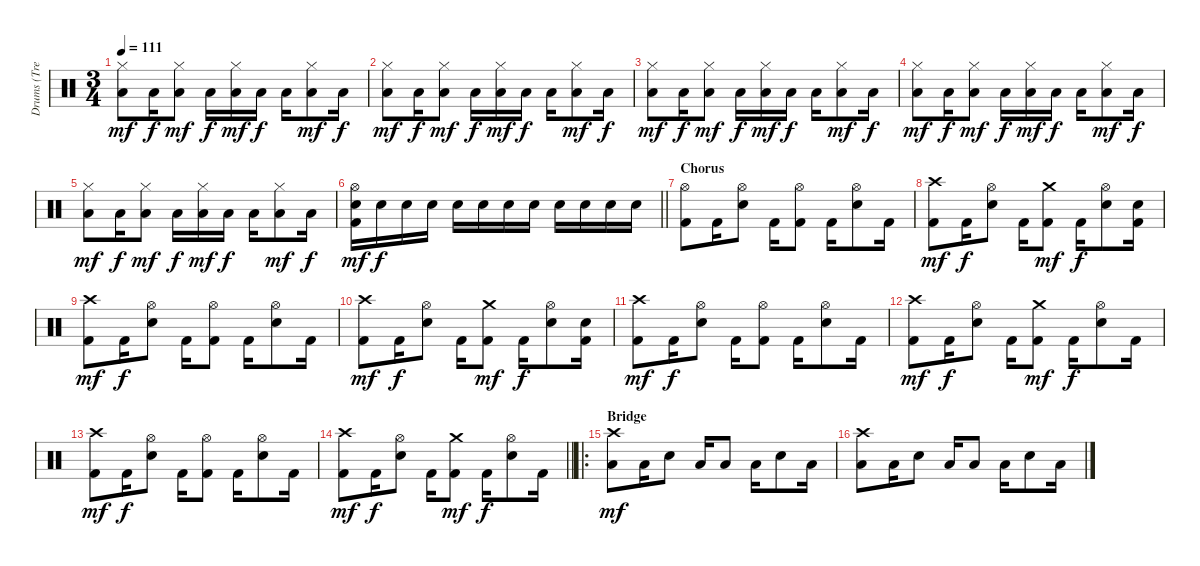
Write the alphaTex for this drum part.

\track ("Drums (Tre Cool)" "Drums (Tre") {instrument percussion}
\staff {score}
\articulation defaults
\ts (3 4)
\tempo 111
\clef neutral
\ks c
("Hi-Hat (closed)" "Low Floor Tom (hit)").8{dy mf} "Low Floor Tom (hit)".16{dy f} ("Hi-Hat (closed)" "Low Tom (hit)").8{dy mf} "Low Tom (hit)".16{dy f} ("Hi-Hat (closed)" "Low Floor Tom (hit)").16{dy mf} "Low Floor Tom (hit)".16{dy f} "Low Floor Tom (hit)".16 ("Hi-Hat (closed)" "Low Tom (hit)").8{dy mf} "Low Tom (hit)".16{dy f} |
("Hi-Hat (closed)" "Low Floor Tom (hit)").8{dy mf} "Low Floor Tom (hit)".16{dy f} ("Hi-Hat (closed)" "Low Tom (hit)").8{dy mf} "Low Tom (hit)".16{dy f} ("Hi-Hat (closed)" "Low Floor Tom (hit)").16{dy mf} "Low Floor Tom (hit)".16{dy f} "Low Floor Tom (hit)".16 ("Hi-Hat (closed)" "Low Tom (hit)").8{dy mf} "Low Tom (hit)".16{dy f} |
("Hi-Hat (closed)" "Low Floor Tom (hit)").8{dy mf} "Low Floor Tom (hit)".16{dy f} ("Hi-Hat (closed)" "Low Tom (hit)").8{dy mf} "Low Tom (hit)".16{dy f} ("Hi-Hat (closed)" "Low Floor Tom (hit)").16{dy mf} "Low Floor Tom (hit)".16{dy f} "Low Floor Tom (hit)".16 ("Hi-Hat (closed)" "Low Tom (hit)").8{dy mf} "Low Tom (hit)".16{dy f} |
("Hi-Hat (closed)" "Low Floor Tom (hit)").8{dy mf} "Low Floor Tom (hit)".16{dy f} ("Hi-Hat (closed)" "Low Tom (hit)").8{dy mf} "Low Tom (hit)".16{dy f} ("Hi-Hat (closed)" "Low Floor Tom (hit)").16{dy mf} "Low Floor Tom (hit)".16{dy f} "Low Floor Tom (hit)".16 ("Hi-Hat (closed)" "Low Tom (hit)").8{dy mf} "Low Tom (hit)".16{dy f} |
("Hi-Hat (closed)" "Low Floor Tom (hit)").8{dy mf} "Low Floor Tom (hit)".16{dy f} ("Hi-Hat (closed)" "Low Tom (hit)").8{dy mf} "Low Tom (hit)".16{dy f} ("Hi-Hat (closed)" "Low Floor Tom (hit)").16{dy mf} "Low Floor Tom (hit)".16{dy f} "Low Floor Tom (hit)".16 ("Hi-Hat (closed)" "Low Tom (hit)").8{dy mf} "Low Tom (hit)".16{dy f} |
\barLineRight lightlight
("Hi-Hat (open)" "Electric Snare (hit)" "Kick (hit) 2").16{dy mf} "Electric Snare (hit)".16{dy f} "Electric Snare (hit)".16 "Electric Snare (hit)".16 "Electric Snare (hit)".16 "Electric Snare (hit)".16 "Electric Snare (hit)".16 "Electric Snare (hit)".16 "Electric Snare (hit)".16 "Electric Snare (hit)".16 "Electric Snare (hit)".16 "Electric Snare (hit)".16 |
\section ("" "Chorus")
("Hi-Hat (open)" "Kick (hit) 2").8 "Kick (hit) 2".16 ("Hi-Hat (open)" "Electric Snare (hit)").8 "Kick (hit) 2".16 ("Hi-Hat (open)" "Kick (hit) 2").8 "Kick (hit) 2".16 ("Hi-Hat (open)" "Electric Snare (hit)").8 "Kick (hit) 2".16 |
("Crash high (hit)" "Kick (hit) 2").8{dy mf} "Kick (hit) 2".16{dy f} ("Hi-Hat (open)" "Electric Snare (hit)").8 "Kick (hit) 2".16 ("Crash medium (hit)" "Kick (hit) 2").8{dy mf} "Kick (hit) 2".16{dy f} ("Hi-Hat (open)" "Electric Snare (hit)").8 ("Electric Snare (hit)" "Kick (hit) 2").16 |
("Crash high (hit)" "Kick (hit) 2").8{dy mf} "Kick (hit) 2".16{dy f} ("Hi-Hat (open)" "Electric Snare (hit)").8 "Kick (hit) 2".16 ("Hi-Hat (open)" "Kick (hit) 2").8 "Kick (hit) 2".16 ("Hi-Hat (open)" "Electric Snare (hit)").8 "Kick (hit) 2".16 |
("Crash high (hit)" "Kick (hit) 2").8{dy mf} "Kick (hit) 2".16{dy f} ("Hi-Hat (open)" "Electric Snare (hit)").8 "Kick (hit) 2".16 ("Crash medium (hit)" "Kick (hit) 2").8{dy mf} "Kick (hit) 2".16{dy f} ("Hi-Hat (open)" "Electric Snare (hit)").8 ("Electric Snare (hit)" "Kick (hit) 2").16 |
("Crash high (hit)" "Kick (hit) 2").8{dy mf} "Kick (hit) 2".16{dy f} ("Hi-Hat (open)" "Electric Snare (hit)").8 "Kick (hit) 2".16 ("Hi-Hat (open)" "Kick (hit) 2").8 "Kick (hit) 2".16 ("Hi-Hat (open)" "Electric Snare (hit)").8 "Kick (hit) 2".16 |
("Crash high (hit)" "Kick (hit) 2").8{dy mf} "Kick (hit) 2".16{dy f} ("Hi-Hat (open)" "Electric Snare (hit)").8 "Kick (hit) 2".16 ("Crash medium (hit)" "Kick (hit) 2").8{dy mf} "Kick (hit) 2".16{dy f} ("Hi-Hat (open)" "Electric Snare (hit)").8 "Kick (hit) 2".16 |
("Crash high (hit)" "Kick (hit) 2").8{dy mf} "Kick (hit) 2".16{dy f} ("Hi-Hat (open)" "Electric Snare (hit)").8 "Kick (hit) 2".16 ("Hi-Hat (open)" "Kick (hit) 2").8 "Kick (hit) 2".16 ("Hi-Hat (open)" "Electric Snare (hit)").8 "Kick (hit) 2".16 |
\barLineRight lightlight
("Crash high (hit)" "Kick (hit) 2").8{dy mf} "Kick (hit) 2".16{dy f} ("Hi-Hat (open)" "Electric Snare (hit)").8 "Kick (hit) 2".16 ("Crash medium (hit)" "Kick (hit) 2").8{dy mf} "Kick (hit) 2".16{dy f} ("Hi-Hat (open)" "Electric Snare (hit)").8 "Kick (hit) 2".16 |
\ro
\section ("" "Bridge")
("Crash high (hit)" "Low Floor Tom (hit)").8{dy mf} "Low Floor Tom (hit)".16 "Electric Snare (hit)".8 "Low Floor Tom (hit)".16 "Low Floor Tom (hit)".8 "Low Floor Tom (hit)".16 "Electric Snare (hit)".8 "Low Floor Tom (hit)".16 |
("Crash high (hit)" "Low Floor Tom (hit)").8 "Low Floor Tom (hit)".16 "Electric Snare (hit)".8 "Low Floor Tom (hit)".16 "Low Floor Tom (hit)".8 "Low Floor Tom (hit)".16 "Electric Snare (hit)".8 "Low Floor Tom (hit)".16
